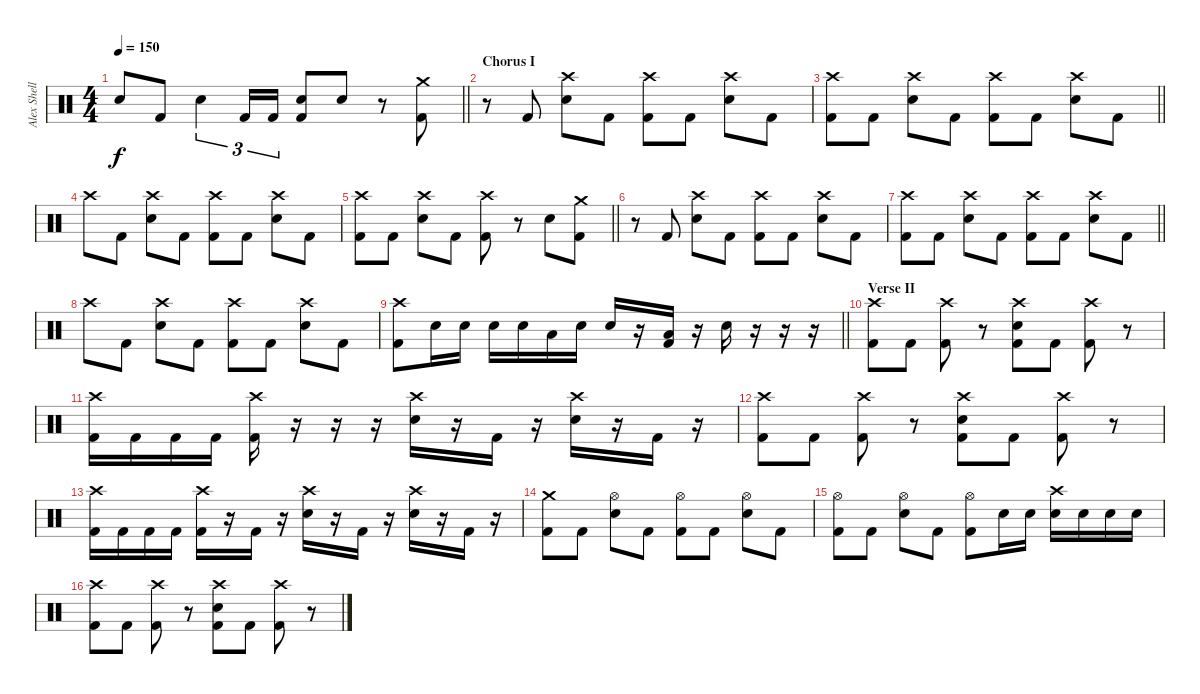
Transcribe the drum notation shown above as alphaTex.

\track ("Alex Shellnutt" "Alex Shell") {instrument percussion}
\staff {score}
\articulation defaults
\ts (4 4)
\tempo 150
\clef neutral
\barLineRight lightlight
\ks c "Snare (hit) 2".8{dy f} "Kick (hit) 2".8 "Snare (hit) 2".4{tu (3 2)} "Kick (hit) 2".16{tu (3 2)} "Kick (hit) 2".16{tu (3 2)}
("Snare (hit) 2" "Kick (hit) 2").8 "Snare (hit) 2".8 r.8 ("Crash medium (hit)" "Kick (hit) 2").8 |
\section ("" "Chorus I")
r.8 "Kick (hit) 2".8 ("Crash high (hit)" "Snare (hit) 2").8 "Kick (hit) 2".8 ("Crash high (hit)" "Kick (hit) 2").8 "Kick (hit) 2".8 ("Crash high (hit)" "Snare (hit) 2").8 "Kick (hit) 2".8 |
\barLineRight lightlight
("Crash high (hit)" "Kick (hit) 2").8 "Kick (hit) 2".8 ("Crash high (hit)" "Snare (hit) 2").8 "Kick (hit) 2".8 ("Crash high (hit)" "Kick (hit) 2").8 "Kick (hit) 2".8 ("Crash high (hit)" "Snare (hit) 2").8 "Kick (hit) 2".8 |
"Crash high (hit)".8 "Kick (hit) 2".8 ("Crash high (hit)" "Snare (hit) 2").8 "Kick (hit) 2".8 ("Crash high (hit)" "Kick (hit) 2").8 "Kick (hit) 2".8 ("Crash high (hit)" "Snare (hit) 2").8 "Kick (hit) 2".8 |
\barLineRight lightlight
("Crash high (hit)" "Kick (hit) 2").8 "Kick (hit) 2".8 ("Crash high (hit)" "Snare (hit) 2").8 "Kick (hit) 2".8 ("Crash high (hit)" "Kick (hit) 2").8 r.8 "Snare (hit) 2".8 ("Crash medium (hit)" "Kick (hit) 2").8 |
r.8 "Kick (hit) 2".8 ("Crash high (hit)" "Snare (hit) 2").8 "Kick (hit) 2".8 ("Crash high (hit)" "Kick (hit) 2").8 "Kick (hit) 2".8 ("Crash high (hit)" "Snare (hit) 2").8 "Kick (hit) 2".8 |
\barLineRight lightlight
("Crash high (hit)" "Kick (hit) 2").8 "Kick (hit) 2".8 ("Crash high (hit)" "Snare (hit) 2").8 "Kick (hit) 2".8 ("Crash high (hit)" "Kick (hit) 2").8 "Kick (hit) 2".8 ("Crash high (hit)" "Snare (hit) 2").8 "Kick (hit) 2".8 |
"Crash high (hit)".8 "Kick (hit) 2".8 ("Crash high (hit)" "Snare (hit) 2").8 "Kick (hit) 2".8 ("Crash high (hit)" "Kick (hit) 2").8 "Kick (hit) 2".8 ("Crash high (hit)" "Snare (hit) 2").8 "Kick (hit) 2".8 |
\barLineRight lightlight
("Crash high (hit)" "Kick (hit) 2").8 "Snare (hit) 2".16 "Snare (hit) 2".16 "Snare (hit) 2".16 "Snare (hit) 2".16 "Low Floor Tom (hit)".16 "Snare (hit) 2".16 "Snare (hit) 2".16 r.16 ("Low Floor Tom (hit)" "Kick (hit) 2").16 r.16 "Snare (hit) 2".16 r.16 r.16 r.16 |
\section ("" "Verse II")
("Crash high (hit)" "Kick (hit) 2").8 "Kick (hit) 2".8 ("Crash high (hit)" "Kick (hit) 2").8 r.8 ("Crash high (hit)" "Snare (hit) 2" "Kick (hit) 2").8 "Kick (hit) 2".8 ("Crash high (hit)" "Kick (hit) 2").8 r.8 |
("Crash high (hit)" "Kick (hit) 2").16 "Kick (hit) 2".16 "Kick (hit) 2".16 "Kick (hit) 2".16 ("Crash high (hit)" "Kick (hit) 2").16 r.16 r.16 r.16 ("Crash high (hit)" "Snare (hit) 2").16 r.16 "Kick (hit) 2".16 r.16 ("Crash high (hit)" "Snare (hit) 2").16 r.16 "Kick (hit) 2".16 r.16 |
("Crash high (hit)" "Kick (hit) 2").8 "Kick (hit) 2".8 ("Crash high (hit)" "Kick (hit) 2").8 r.8 ("Crash high (hit)" "Snare (hit) 2" "Kick (hit) 2").8 "Kick (hit) 2".8 ("Crash high (hit)" "Kick (hit) 2").8 r.8 |
("Crash high (hit)" "Kick (hit) 2").16 "Kick (hit) 2".16 "Kick (hit) 2".16 "Kick (hit) 2".16 ("Crash high (hit)" "Kick (hit) 2").16 r.16 "Kick (hit) 2".16 r.16 ("Crash high (hit)" "Snare (hit) 2").16 r.16 "Kick (hit) 2".16 r.16 ("Crash high (hit)" "Snare (hit) 2").16 r.16 "Kick (hit) 2".16 r.16 |
("Crash medium (hit)" "Kick (hit) 2").8 "Kick (hit) 2".8 ("Hi-Hat (open)" "Snare (hit) 2").8 "Kick (hit) 2".8 ("Hi-Hat (open)" "Kick (hit) 2").8 "Kick (hit) 2".8 ("Hi-Hat (open)" "Snare (hit) 2").8 "Kick (hit) 2".8 |
("Hi-Hat (open)" "Kick (hit) 2").8 "Kick (hit) 2".8 ("Hi-Hat (open)" "Snare (hit) 2").8 "Kick (hit) 2".8 ("Hi-Hat (open)" "Kick (hit) 2").8 "Snare (hit) 2".16 "Snare (hit) 2".16 ("Crash high (hit)" "Snare (hit) 2").16 "Snare (hit) 2".16 "Snare (hit) 2".16 "Snare (hit) 2".16 |
("Crash high (hit)" "Kick (hit) 2").8 "Kick (hit) 2".8 ("Crash high (hit)" "Kick (hit) 2").8 r.8 ("Crash high (hit)" "Snare (hit) 2" "Kick (hit) 2").8 "Kick (hit) 2".8 ("Crash high (hit)" "Kick (hit) 2").8 r.8
